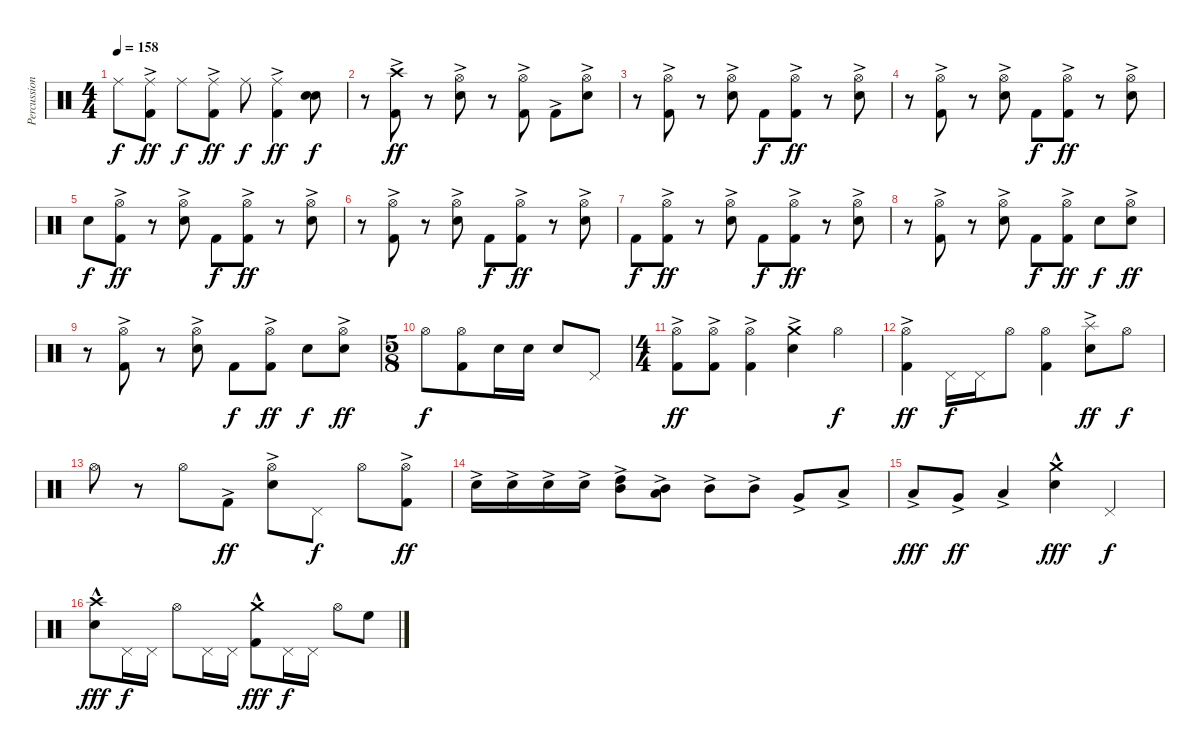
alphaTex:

\track ("Percussion" "Percussion") {instrument percussion}
\staff {score}
\articulation defaults
\ts (4 4)
\tempo 158
\clef neutral
\ks c "Ride (middle)".8{dy f}
("Ride (middle)"{ac} "Kick (hit) 2").8{dy ff} "Ride (middle)".8{dy f} ("Ride (middle)"{ac} "Kick (hit) 2").8{dy ff} "Ride (middle)".8{dy f} ("Ride (middle)"{ac} "Kick (hit) 2").4{dy ff} ("Electric Snare (hit)" "Electric Snare (hit)").8{dy f} |
r.8 ("Crash high (hit)"{ac} "Kick (hit) 2").8{dy ff} r.8 ("Hi-Hat (open)"{ac} "Electric Snare (hit)").8 r.8 ("Hi-Hat (open)"{ac} "Kick (hit) 2"{ac}).8 "Kick (hit) 2"{ac}.8 ("Hi-Hat (open)"{ac} "Electric Snare (hit)").8 |
r.8 ("Hi-Hat (open)"{ac} "Kick (hit) 2"{ac}).8 r.8 ("Hi-Hat (open)"{ac} "Electric Snare (hit)"{ac}).8 "Kick (hit) 2".8{dy f} ("Hi-Hat (open)"{ac} "Kick (hit) 2").8{dy ff} r.8 ("Hi-Hat (open)"{ac} "Electric Snare (hit)").8 |
r.8 ("Hi-Hat (open)"{ac} "Kick (hit) 2"{ac}).8 r.8 ("Hi-Hat (open)"{ac} "Electric Snare (hit)"{ac}).8 "Kick (hit) 2".8{dy f} ("Hi-Hat (open)"{ac} "Kick (hit) 2").8{dy ff} r.8 ("Hi-Hat (open)"{ac} "Electric Snare (hit)").8 |
"Electric Snare (hit)".8{dy f} ("Hi-Hat (open)"{ac} "Kick (hit) 2"{ac}).8{dy ff} r.8 ("Hi-Hat (open)"{ac} "Electric Snare (hit)"{ac}).8 "Kick (hit) 2".8{dy f} ("Hi-Hat (open)"{ac} "Kick (hit) 2").8{dy ff} r.8 ("Hi-Hat (open)"{ac} "Electric Snare (hit)").8 |
r.8 ("Hi-Hat (open)"{ac} "Kick (hit) 2"{ac}).8 r.8 ("Hi-Hat (open)"{ac} "Electric Snare (hit)"{ac}).8 "Kick (hit) 2".8{dy f} ("Hi-Hat (open)"{ac} "Kick (hit) 2").8{dy ff} r.8 ("Hi-Hat (open)"{ac} "Electric Snare (hit)").8 |
"Kick (hit) 2".8{dy f} ("Hi-Hat (open)"{ac} "Kick (hit) 2"{ac}).8{dy ff} r.8 ("Hi-Hat (open)"{ac} "Electric Snare (hit)"{ac}).8 "Kick (hit) 2".8{dy f} ("Hi-Hat (open)"{ac} "Kick (hit) 2").8{dy ff} r.8 ("Hi-Hat (open)"{ac} "Electric Snare (hit)").8 |
r.8 ("Hi-Hat (open)"{ac} "Kick (hit) 2"{ac}).8 r.8 ("Hi-Hat (open)"{ac} "Electric Snare (hit)"{ac}).8 "Kick (hit) 2".8{dy f} ("Hi-Hat (open)"{ac} "Kick (hit) 2").8{dy ff} "Electric Snare (hit)".8{dy f} ("Hi-Hat (open)"{ac} "Electric Snare (hit)").8{dy ff} |
r.8 ("Hi-Hat (open)"{ac} "Kick (hit) 2"{ac}).8 r.8 ("Hi-Hat (open)"{ac} "Electric Snare (hit)"{ac}).8 "Kick (hit) 2".8{dy f} ("Hi-Hat (open)"{ac} "Kick (hit) 2").8{dy ff} "Electric Snare (hit)".8{dy f} ("Hi-Hat (open)"{ac} "Electric Snare (hit)").8{dy ff} |
\ts (5 8)
"Hi-Hat (open)".8{dy f} ("Hi-Hat (open)" "Kick (hit) 2").8 "Electric Snare (hit)".16 "Electric Snare (hit)".16 "Electric Snare (hit)".8 "Pedal Hi-Hat (hit)".8 |
\ts (4 4)
("Hi-Hat (open)" "Kick (hit) 2"{ac}).8{dy ff} ("Hi-Hat (open)" "Kick (hit) 2"{ac}).8 ("Hi-Hat (open)" "Kick (hit) 2"{ac}).4 ("Crash medium (hit)" "Electric Snare (hit)"{ac}).4 "Hi-Hat (open)".4{dy f} |
("Hi-Hat (open)" "Kick (hit) 2"{ac}).4{dy ff} "Pedal Hi-Hat (hit)".16{dy f} "Pedal Hi-Hat (hit)".16 "Hi-Hat (open)".8 ("Hi-Hat (open)" "Kick (hit) 2").4 ("Splash (hit)" "Electric Snare (hit)"{ac}).8{dy ff} "Hi-Hat (open)".8{dy f} |
"Hi-Hat (open)".8 r.8 "Hi-Hat (open)".8 "Kick (hit) 2"{ac}.8{dy ff} ("Hi-Hat (open)" "Electric Snare (hit)"{ac}).8 "Pedal Hi-Hat (hit)".8{dy f} "Hi-Hat (open)".8 ("Hi-Hat (open)" "Kick (hit) 2"{ac}).8{dy ff} |
"Electric Snare (hit)"{ac}.16 "Electric Snare (hit)"{ac}.16 "Electric Snare (hit)"{ac}.16 "Electric Snare (hit)"{ac}.16 ("High Tom (hit)"{ac} "Mid Tom (hit)"{ac}).8 ("Low Tom (hit)"{ac} "Mid Tom (hit)"{ac}).8 "Mid Tom (hit)"{ac}.8 "Mid Tom (hit)"{ac}.8 "Very Low Tom (hit)"{ac}.8 "Low Floor Tom (hit)"{ac}.8 |
"Low Tom (hit)"{ac}.8{dy fff} "Very Low Tom (hit)"{ac}.8{dy ff} "Low Floor Tom (hit)"{ac}.4 ("Crash medium (hit)" "Electric Snare (hit)"{hac}).4{dy fff} "Pedal Hi-Hat (hit)".4{dy f} |
("Crash high (hit)" "Electric Snare (hit)"{hac}).8{dy fff} "Pedal Hi-Hat (hit)".16{dy f} "Pedal Hi-Hat (hit)".16 "Hi-Hat (open)".8 "Pedal Hi-Hat (hit)".16 "Pedal Hi-Hat (hit)".16 ("Crash medium (hit)" "Kick (hit) 2"{hac}).8{dy fff} "Pedal Hi-Hat (hit)".16{dy f} "Pedal Hi-Hat (hit)".16 "Hi-Hat (open)".8 "High Floor Tom (hit)".8
